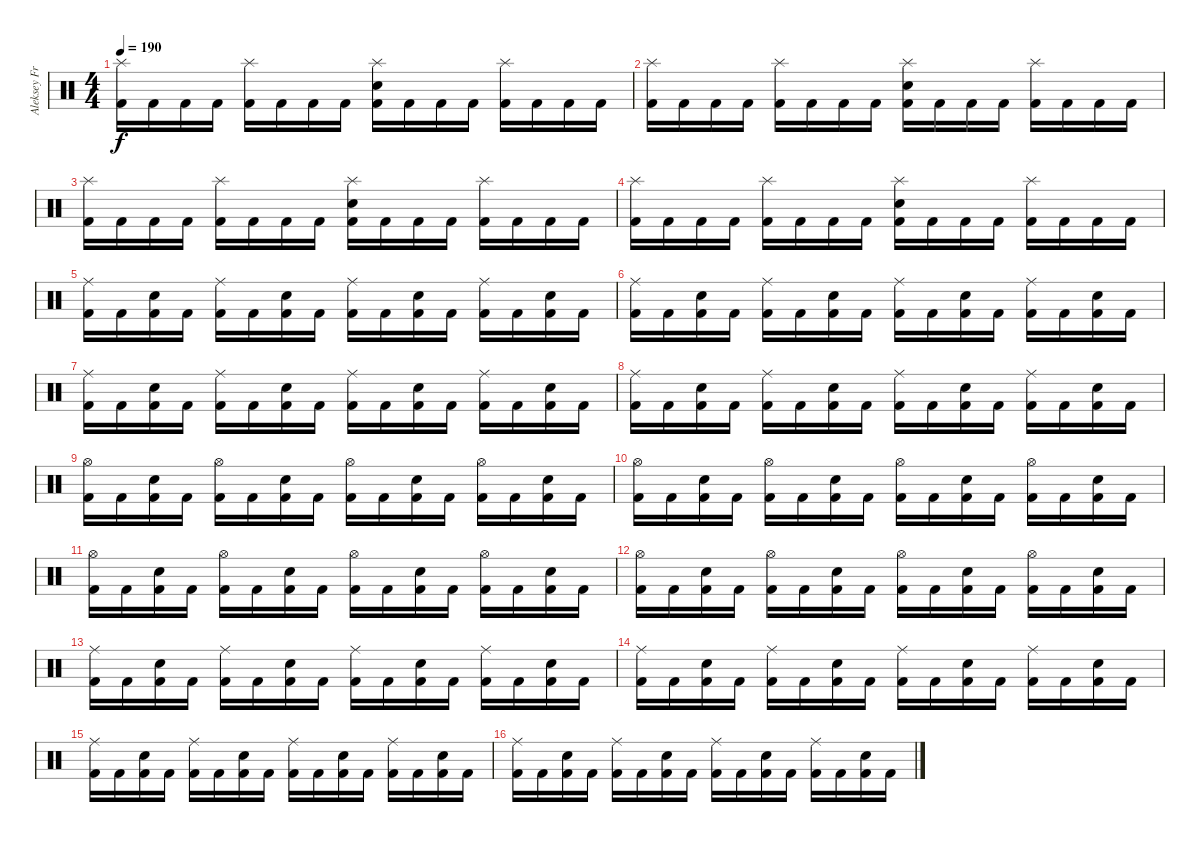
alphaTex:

\track ("Aleksey Frolov" "Aleksey Fr") {instrument percussion}
\staff {score}
\articulation defaults
\ts (4 4)
\tempo 190
\clef neutral
\ks c
("Splash (hit)" "Kick (hit) 2").16{dy f} "Kick (hit) 2".16 "Kick (hit) 2".16 "Kick (hit) 2".16 ("Splash (hit)" "Kick (hit) 2").16 "Kick (hit) 2".16 "Kick (hit) 2".16 "Kick (hit) 2".16 ("Splash (hit)" "Electric Snare (hit)" "Kick (hit) 2").16 "Kick (hit) 2".16 "Kick (hit) 2".16 "Kick (hit) 2".16 ("Splash (hit)" "Kick (hit) 2").16 "Kick (hit) 2".16 "Kick (hit) 2".16 "Kick (hit) 2".16 |
("Splash (hit)" "Kick (hit) 2").16 "Kick (hit) 2".16 "Kick (hit) 2".16 "Kick (hit) 2".16 ("Splash (hit)" "Kick (hit) 2").16 "Kick (hit) 2".16 "Kick (hit) 2".16 "Kick (hit) 2".16 ("Splash (hit)" "Electric Snare (hit)" "Kick (hit) 2").16 "Kick (hit) 2".16 "Kick (hit) 2".16 "Kick (hit) 2".16 ("Splash (hit)" "Kick (hit) 2").16 "Kick (hit) 2".16 "Kick (hit) 2".16 "Kick (hit) 2".16 |
("Splash (hit)" "Kick (hit) 2").16 "Kick (hit) 2".16 "Kick (hit) 2".16 "Kick (hit) 2".16 ("Splash (hit)" "Kick (hit) 2").16 "Kick (hit) 2".16 "Kick (hit) 2".16 "Kick (hit) 2".16 ("Splash (hit)" "Electric Snare (hit)" "Kick (hit) 2").16 "Kick (hit) 2".16 "Kick (hit) 2".16 "Kick (hit) 2".16 ("Splash (hit)" "Kick (hit) 2").16 "Kick (hit) 2".16 "Kick (hit) 2".16 "Kick (hit) 2".16 |
("Splash (hit)" "Kick (hit) 2").16 "Kick (hit) 2".16 "Kick (hit) 2".16 "Kick (hit) 2".16 ("Splash (hit)" "Kick (hit) 2").16 "Kick (hit) 2".16 "Kick (hit) 2".16 "Kick (hit) 2".16 ("Splash (hit)" "Electric Snare (hit)" "Kick (hit) 2").16 "Kick (hit) 2".16 "Kick (hit) 2".16 "Kick (hit) 2".16 ("Splash (hit)" "Kick (hit) 2").16 "Kick (hit) 2".16 "Kick (hit) 2".16 "Kick (hit) 2".16 |
("Kick (hit) 2" "Ride (middle)").16 "Kick (hit) 2".16 ("Kick (hit) 2" "Electric Snare (hit)").16 "Kick (hit) 2".16 ("Kick (hit) 2" "Ride (middle)").16 "Kick (hit) 2".16 ("Kick (hit) 2" "Electric Snare (hit)").16 "Kick (hit) 2".16 ("Kick (hit) 2" "Ride (middle)").16 "Kick (hit) 2".16 ("Kick (hit) 2" "Electric Snare (hit)").16 "Kick (hit) 2".16 ("Kick (hit) 2" "Ride (middle)").16 "Kick (hit) 2".16 ("Kick (hit) 2" "Electric Snare (hit)").16 "Kick (hit) 2".16 |
("Kick (hit) 2" "Ride (middle)").16 "Kick (hit) 2".16 ("Kick (hit) 2" "Electric Snare (hit)").16 "Kick (hit) 2".16 ("Kick (hit) 2" "Ride (middle)").16 "Kick (hit) 2".16 ("Kick (hit) 2" "Electric Snare (hit)").16 "Kick (hit) 2".16 ("Kick (hit) 2" "Ride (middle)").16 "Kick (hit) 2".16 ("Kick (hit) 2" "Electric Snare (hit)").16 "Kick (hit) 2".16 ("Kick (hit) 2" "Ride (middle)").16 "Kick (hit) 2".16 ("Kick (hit) 2" "Electric Snare (hit)").16 "Kick (hit) 2".16 |
("Kick (hit) 2" "Ride (middle)").16 "Kick (hit) 2".16 ("Kick (hit) 2" "Electric Snare (hit)").16 "Kick (hit) 2".16 ("Kick (hit) 2" "Ride (middle)").16 "Kick (hit) 2".16 ("Kick (hit) 2" "Electric Snare (hit)").16 "Kick (hit) 2".16 ("Kick (hit) 2" "Ride (middle)").16 "Kick (hit) 2".16 ("Kick (hit) 2" "Electric Snare (hit)").16 "Kick (hit) 2".16 ("Kick (hit) 2" "Ride (middle)").16 "Kick (hit) 2".16 ("Kick (hit) 2" "Electric Snare (hit)").16 "Kick (hit) 2".16 |
("Kick (hit) 2" "Ride (middle)").16 "Kick (hit) 2".16 ("Kick (hit) 2" "Electric Snare (hit)").16 "Kick (hit) 2".16 ("Kick (hit) 2" "Ride (middle)").16 "Kick (hit) 2".16 ("Kick (hit) 2" "Electric Snare (hit)").16 "Kick (hit) 2".16 ("Kick (hit) 2" "Ride (middle)").16 "Kick (hit) 2".16 ("Kick (hit) 2" "Electric Snare (hit)").16 "Kick (hit) 2".16 ("Kick (hit) 2" "Ride (middle)").16 "Kick (hit) 2".16 ("Kick (hit) 2" "Electric Snare (hit)").16 "Kick (hit) 2".16 |
("Kick (hit) 2" "Hi-Hat (open)").16 "Kick (hit) 2".16 ("Kick (hit) 2" "Electric Snare (hit)").16 "Kick (hit) 2".16 ("Kick (hit) 2" "Hi-Hat (open)").16 "Kick (hit) 2".16 ("Kick (hit) 2" "Electric Snare (hit)").16 "Kick (hit) 2".16 ("Kick (hit) 2" "Hi-Hat (open)").16 "Kick (hit) 2".16 ("Kick (hit) 2" "Electric Snare (hit)").16 "Kick (hit) 2".16 ("Kick (hit) 2" "Hi-Hat (open)").16 "Kick (hit) 2".16 ("Kick (hit) 2" "Electric Snare (hit)").16 "Kick (hit) 2".16 |
("Kick (hit) 2" "Hi-Hat (open)").16 "Kick (hit) 2".16 ("Kick (hit) 2" "Electric Snare (hit)").16 "Kick (hit) 2".16 ("Kick (hit) 2" "Hi-Hat (open)").16 "Kick (hit) 2".16 ("Kick (hit) 2" "Electric Snare (hit)").16 "Kick (hit) 2".16 ("Kick (hit) 2" "Hi-Hat (open)").16 "Kick (hit) 2".16 ("Kick (hit) 2" "Electric Snare (hit)").16 "Kick (hit) 2".16 ("Kick (hit) 2" "Hi-Hat (open)").16 "Kick (hit) 2".16 ("Kick (hit) 2" "Electric Snare (hit)").16 "Kick (hit) 2".16 |
("Kick (hit) 2" "Hi-Hat (open)").16 "Kick (hit) 2".16 ("Kick (hit) 2" "Electric Snare (hit)").16 "Kick (hit) 2".16 ("Kick (hit) 2" "Hi-Hat (open)").16 "Kick (hit) 2".16 ("Kick (hit) 2" "Electric Snare (hit)").16 "Kick (hit) 2".16 ("Kick (hit) 2" "Hi-Hat (open)").16 "Kick (hit) 2".16 ("Kick (hit) 2" "Electric Snare (hit)").16 "Kick (hit) 2".16 ("Kick (hit) 2" "Hi-Hat (open)").16 "Kick (hit) 2".16 ("Kick (hit) 2" "Electric Snare (hit)").16 "Kick (hit) 2".16 |
("Kick (hit) 2" "Hi-Hat (open)").16 "Kick (hit) 2".16 ("Kick (hit) 2" "Electric Snare (hit)").16 "Kick (hit) 2".16 ("Kick (hit) 2" "Hi-Hat (open)").16 "Kick (hit) 2".16 ("Kick (hit) 2" "Electric Snare (hit)").16 "Kick (hit) 2".16 ("Kick (hit) 2" "Hi-Hat (open)").16 "Kick (hit) 2".16 ("Kick (hit) 2" "Electric Snare (hit)").16 "Kick (hit) 2".16 ("Kick (hit) 2" "Hi-Hat (open)").16 "Kick (hit) 2".16 ("Kick (hit) 2" "Electric Snare (hit)").16 "Kick (hit) 2".16 |
("Kick (hit) 2" "Ride (middle)").16 "Kick (hit) 2".16 ("Kick (hit) 2" "Electric Snare (hit)").16 "Kick (hit) 2".16 ("Kick (hit) 2" "Ride (middle)").16 "Kick (hit) 2".16 ("Kick (hit) 2" "Electric Snare (hit)").16 "Kick (hit) 2".16 ("Kick (hit) 2" "Ride (middle)").16 "Kick (hit) 2".16 ("Kick (hit) 2" "Electric Snare (hit)").16 "Kick (hit) 2".16 ("Kick (hit) 2" "Ride (middle)").16 "Kick (hit) 2".16 ("Kick (hit) 2" "Electric Snare (hit)").16 "Kick (hit) 2".16 |
("Kick (hit) 2" "Ride (middle)").16 "Kick (hit) 2".16 ("Kick (hit) 2" "Electric Snare (hit)").16 "Kick (hit) 2".16 ("Kick (hit) 2" "Ride (middle)").16 "Kick (hit) 2".16 ("Kick (hit) 2" "Electric Snare (hit)").16 "Kick (hit) 2".16 ("Kick (hit) 2" "Ride (middle)").16 "Kick (hit) 2".16 ("Kick (hit) 2" "Electric Snare (hit)").16 "Kick (hit) 2".16 ("Kick (hit) 2" "Ride (middle)").16 "Kick (hit) 2".16 ("Kick (hit) 2" "Electric Snare (hit)").16 "Kick (hit) 2".16 |
("Kick (hit) 2" "Ride (middle)").16 "Kick (hit) 2".16 ("Kick (hit) 2" "Electric Snare (hit)").16 "Kick (hit) 2".16 ("Kick (hit) 2" "Ride (middle)").16 "Kick (hit) 2".16 ("Kick (hit) 2" "Electric Snare (hit)").16 "Kick (hit) 2".16 ("Kick (hit) 2" "Ride (middle)").16 "Kick (hit) 2".16 ("Kick (hit) 2" "Electric Snare (hit)").16 "Kick (hit) 2".16 ("Kick (hit) 2" "Ride (middle)").16 "Kick (hit) 2".16 ("Kick (hit) 2" "Electric Snare (hit)").16 "Kick (hit) 2".16 |
("Kick (hit) 2" "Ride (middle)").16 "Kick (hit) 2".16 ("Kick (hit) 2" "Electric Snare (hit)").16 "Kick (hit) 2".16 ("Kick (hit) 2" "Ride (middle)").16 "Kick (hit) 2".16 ("Kick (hit) 2" "Electric Snare (hit)").16 "Kick (hit) 2".16 ("Kick (hit) 2" "Ride (middle)").16 "Kick (hit) 2".16 ("Kick (hit) 2" "Electric Snare (hit)").16 "Kick (hit) 2".16 ("Kick (hit) 2" "Ride (middle)").16 "Kick (hit) 2".16 ("Kick (hit) 2" "Electric Snare (hit)").16 "Kick (hit) 2".16
